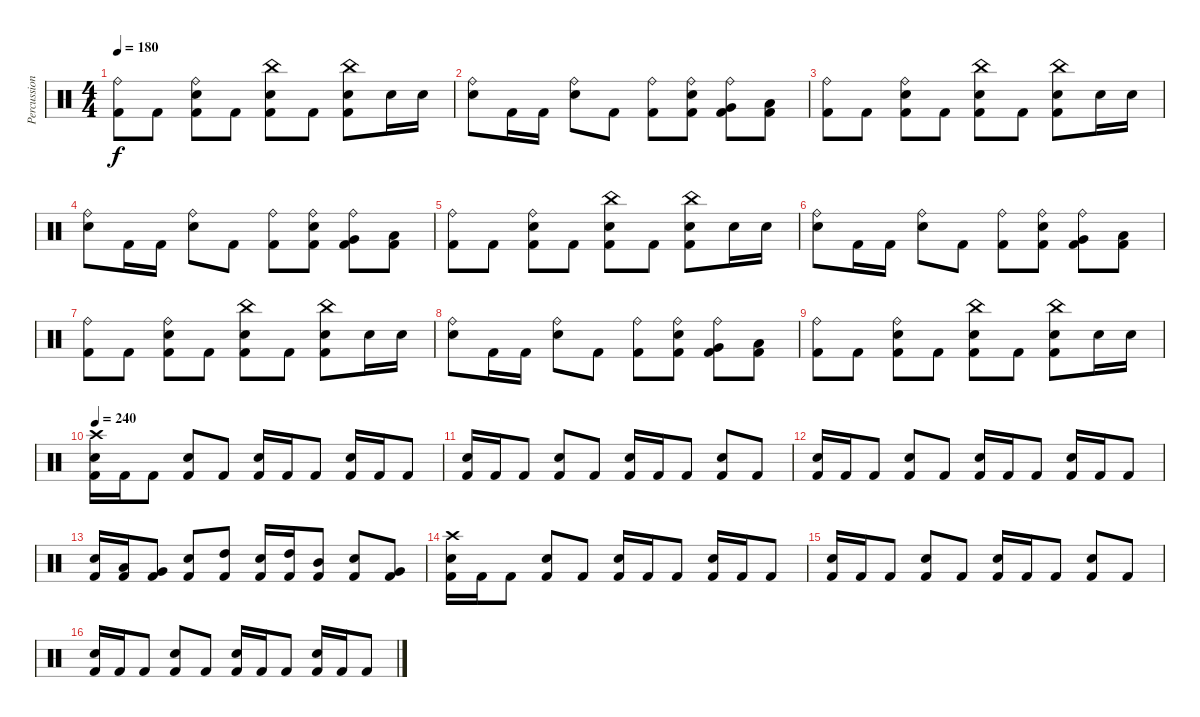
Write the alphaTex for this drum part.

\track ("Percussion" "Percussion") {mute instrument percussion}
\staff {score}
\articulation defaults
\ts (4 4)
\tempo 180
\clef neutral
\ks c
("Ride (bell)" "Kick (hit) 2").8{dy f} "Kick (hit) 2".8 ("Ride (bell)" "Electric Snare (hit)" "Kick (hit) 2").8 "Kick (hit) 2".8 ("China (hit)" "Electric Snare (hit)" "Kick (hit) 2").8 "Kick (hit) 2".8 ("China (hit)" "Electric Snare (hit)" "Kick (hit) 2").8 "Electric Snare (hit)".16 "Electric Snare (hit)".16 |
("Ride (bell)" "Electric Snare (hit)").8 "Kick (hit) 2".16 "Kick (hit) 2".16 ("Ride (bell)" "Electric Snare (hit)").8 "Kick (hit) 2".8 ("Ride (bell)" "Kick (hit) 2").8 ("Ride (bell)" "Electric Snare (hit)" "Kick (hit) 2").8 ("Ride (bell)" "Very Low Tom (hit)" "Kick (hit) 2").8 ("Low Floor Tom (hit)" "Kick (hit) 2").8 |
("Ride (bell)" "Kick (hit) 2").8 "Kick (hit) 2".8 ("Ride (bell)" "Electric Snare (hit)" "Kick (hit) 2").8 "Kick (hit) 2".8 ("China (hit)" "Electric Snare (hit)" "Kick (hit) 2").8 "Kick (hit) 2".8 ("China (hit)" "Electric Snare (hit)" "Kick (hit) 2").8 "Electric Snare (hit)".16 "Electric Snare (hit)".16 |
("Ride (bell)" "Electric Snare (hit)").8 "Kick (hit) 2".16 "Kick (hit) 2".16 ("Ride (bell)" "Electric Snare (hit)").8 "Kick (hit) 2".8 ("Ride (bell)" "Kick (hit) 2").8 ("Ride (bell)" "Electric Snare (hit)" "Kick (hit) 2").8 ("Ride (bell)" "Very Low Tom (hit)" "Kick (hit) 2").8 ("Low Floor Tom (hit)" "Kick (hit) 2").8 |
("Ride (bell)" "Kick (hit) 2").8 "Kick (hit) 2".8 ("Ride (bell)" "Electric Snare (hit)" "Kick (hit) 2").8 "Kick (hit) 2".8 ("China (hit)" "Electric Snare (hit)" "Kick (hit) 2").8 "Kick (hit) 2".8 ("China (hit)" "Electric Snare (hit)" "Kick (hit) 2").8 "Electric Snare (hit)".16 "Electric Snare (hit)".16 |
("Ride (bell)" "Electric Snare (hit)").8 "Kick (hit) 2".16 "Kick (hit) 2".16 ("Ride (bell)" "Electric Snare (hit)").8 "Kick (hit) 2".8 ("Ride (bell)" "Kick (hit) 2").8 ("Ride (bell)" "Electric Snare (hit)" "Kick (hit) 2").8 ("Ride (bell)" "Very Low Tom (hit)" "Kick (hit) 2").8 ("Low Floor Tom (hit)" "Kick (hit) 2").8 |
("Ride (bell)" "Kick (hit) 2").8 "Kick (hit) 2".8 ("Ride (bell)" "Electric Snare (hit)" "Kick (hit) 2").8 "Kick (hit) 2".8 ("China (hit)" "Electric Snare (hit)" "Kick (hit) 2").8 "Kick (hit) 2".8 ("China (hit)" "Electric Snare (hit)" "Kick (hit) 2").8 "Electric Snare (hit)".16 "Electric Snare (hit)".16 |
("Ride (bell)" "Electric Snare (hit)").8 "Kick (hit) 2".16 "Kick (hit) 2".16 ("Ride (bell)" "Electric Snare (hit)").8 "Kick (hit) 2".8 ("Ride (bell)" "Kick (hit) 2").8 ("Ride (bell)" "Electric Snare (hit)" "Kick (hit) 2").8 ("Ride (bell)" "Very Low Tom (hit)" "Kick (hit) 2").8 ("Low Floor Tom (hit)" "Kick (hit) 2").8 |
("Ride (bell)" "Kick (hit) 2").8 "Kick (hit) 2".8 ("Ride (bell)" "Electric Snare (hit)" "Kick (hit) 2").8 "Kick (hit) 2".8 ("China (hit)" "Electric Snare (hit)" "Kick (hit) 2").8 "Kick (hit) 2".8 ("China (hit)" "Electric Snare (hit)" "Kick (hit) 2").8 "Electric Snare (hit)".16 "Electric Snare (hit)".16 |
\tempo 240
("Crash high (hit)" "Electric Snare (hit)" "Kick (hit) 2").16 "Kick (hit) 2".16 "Kick (hit) 2".8 ("Electric Snare (hit)" "Kick (hit) 2").8 "Kick (hit) 2".8 ("Electric Snare (hit)" "Kick (hit) 2").16 "Kick (hit) 2".16 "Kick (hit) 2".8 ("Electric Snare (hit)" "Kick (hit) 2").16 "Kick (hit) 2".16 "Kick (hit) 2".8 |
("Electric Snare (hit)" "Kick (hit) 2").16 "Kick (hit) 2".16 "Kick (hit) 2".8 ("Electric Snare (hit)" "Kick (hit) 2").8 "Kick (hit) 2".8 ("Electric Snare (hit)" "Kick (hit) 2").16 "Kick (hit) 2".16 "Kick (hit) 2".8 ("Electric Snare (hit)" "Kick (hit) 2").8 "Kick (hit) 2".8 |
("Electric Snare (hit)" "Kick (hit) 2").16 "Kick (hit) 2".16 "Kick (hit) 2".8 ("Electric Snare (hit)" "Kick (hit) 2").8 "Kick (hit) 2".8 ("Electric Snare (hit)" "Kick (hit) 2").16 "Kick (hit) 2".16 "Kick (hit) 2".8 ("Electric Snare (hit)" "Kick (hit) 2").16 "Kick (hit) 2".16 "Kick (hit) 2".8 |
("Electric Snare (hit)" "Kick (hit) 2").16 ("Low Tom (hit)" "Kick (hit) 2").16 ("Very Low Tom (hit)" "Kick (hit) 2").8 ("Electric Snare (hit)" "Kick (hit) 2").8 ("High Tom (hit)" "Kick (hit) 2").8 ("Electric Snare (hit)" "Kick (hit) 2").16 ("High Tom (hit)" "Kick (hit) 2").16 ("Mid Tom (hit)" "Kick (hit) 2").8 ("Electric Snare (hit)" "Kick (hit) 2").8 ("Very Low Tom (hit)" "Kick (hit) 2").8 |
("Crash high (hit)" "Electric Snare (hit)" "Kick (hit) 2").16 "Kick (hit) 2".16 "Kick (hit) 2".8 ("Electric Snare (hit)" "Kick (hit) 2").8 "Kick (hit) 2".8 ("Electric Snare (hit)" "Kick (hit) 2").16 "Kick (hit) 2".16 "Kick (hit) 2".8 ("Electric Snare (hit)" "Kick (hit) 2").16 "Kick (hit) 2".16 "Kick (hit) 2".8 |
("Electric Snare (hit)" "Kick (hit) 2").16 "Kick (hit) 2".16 "Kick (hit) 2".8 ("Electric Snare (hit)" "Kick (hit) 2").8 "Kick (hit) 2".8 ("Electric Snare (hit)" "Kick (hit) 2").16 "Kick (hit) 2".16 "Kick (hit) 2".8 ("Electric Snare (hit)" "Kick (hit) 2").8 "Kick (hit) 2".8 |
("Electric Snare (hit)" "Kick (hit) 2").16 "Kick (hit) 2".16 "Kick (hit) 2".8 ("Electric Snare (hit)" "Kick (hit) 2").8 "Kick (hit) 2".8 ("Electric Snare (hit)" "Kick (hit) 2").16 "Kick (hit) 2".16 "Kick (hit) 2".8 ("Electric Snare (hit)" "Kick (hit) 2").16 "Kick (hit) 2".16 "Kick (hit) 2".8
